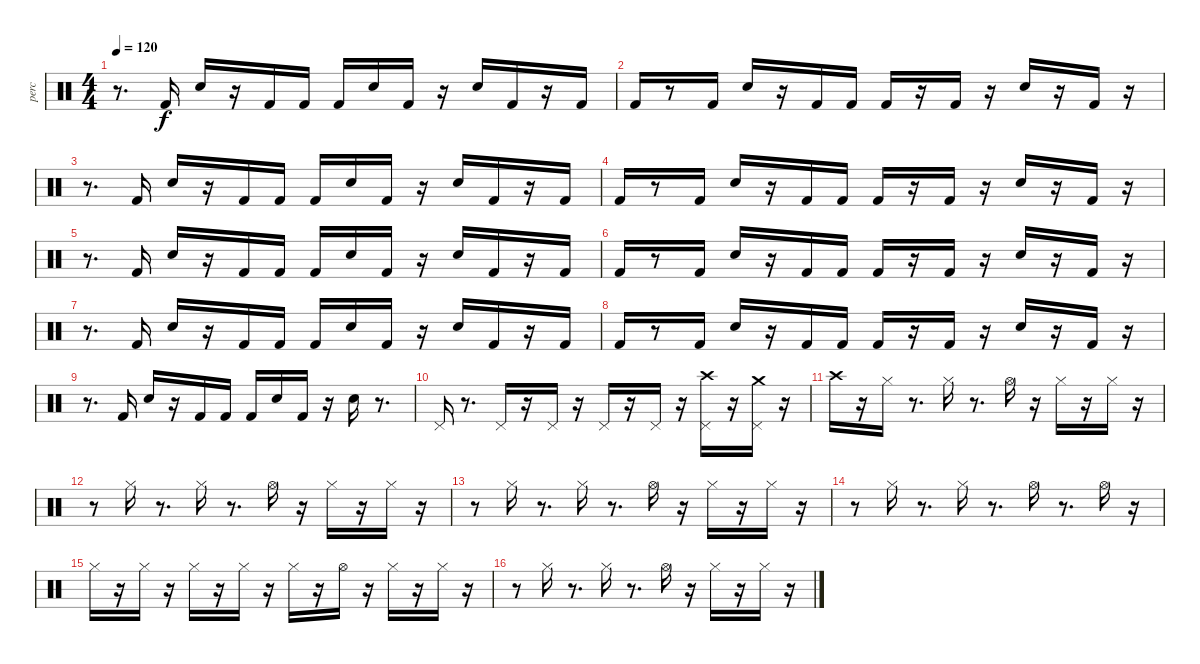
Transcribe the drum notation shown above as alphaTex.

\track ("perc" "perc") {instrument percussion}
\staff {score}
\articulation defaults
\ts (4 4)
\tempo 120
\clef neutral
\ks c
r.8{d dy f} "Kick (hit) 2".16 "Electric Snare (hit)".16 r.16 "Kick (hit) 2".16 "Kick (hit) 2".16 "Kick (hit) 2".16 "Electric Snare (hit)".16 "Kick (hit) 2".16 r.16 "Electric Snare (hit)".16 "Kick (hit) 2".16 r.16 "Kick (hit) 2".16 |
"Kick (hit) 2".16 r.8 "Kick (hit) 2".16 "Electric Snare (hit)".16 r.16 "Kick (hit) 2".16 "Kick (hit) 2".16 "Kick (hit) 2".16 r.16 "Kick (hit) 2".16 r.16 "Electric Snare (hit)".16 r.16 "Kick (hit) 2".16 r.16 |
r.8{d} "Kick (hit) 2".16 "Electric Snare (hit)".16 r.16 "Kick (hit) 2".16 "Kick (hit) 2".16 "Kick (hit) 2".16 "Electric Snare (hit)".16 "Kick (hit) 2".16 r.16 "Electric Snare (hit)".16 "Kick (hit) 2".16 r.16 "Kick (hit) 2".16 |
"Kick (hit) 2".16 r.8 "Kick (hit) 2".16 "Electric Snare (hit)".16 r.16 "Kick (hit) 2".16 "Kick (hit) 2".16 "Kick (hit) 2".16 r.16 "Kick (hit) 2".16 r.16 "Electric Snare (hit)".16 r.16 "Kick (hit) 2".16 r.16 |
r.8{d} "Kick (hit) 2".16 "Electric Snare (hit)".16 r.16 "Kick (hit) 2".16 "Kick (hit) 2".16 "Kick (hit) 2".16 "Electric Snare (hit)".16 "Kick (hit) 2".16 r.16 "Electric Snare (hit)".16 "Kick (hit) 2".16 r.16 "Kick (hit) 2".16 |
"Kick (hit) 2".16 r.8 "Kick (hit) 2".16 "Electric Snare (hit)".16 r.16 "Kick (hit) 2".16 "Kick (hit) 2".16 "Kick (hit) 2".16 r.16 "Kick (hit) 2".16 r.16 "Electric Snare (hit)".16 r.16 "Kick (hit) 2".16 r.16 |
r.8{d} "Kick (hit) 2".16 "Electric Snare (hit)".16 r.16 "Kick (hit) 2".16 "Kick (hit) 2".16 "Kick (hit) 2".16 "Electric Snare (hit)".16 "Kick (hit) 2".16 r.16 "Electric Snare (hit)".16 "Kick (hit) 2".16 r.16 "Kick (hit) 2".16 |
"Kick (hit) 2".16 r.8 "Kick (hit) 2".16 "Electric Snare (hit)".16 r.16 "Kick (hit) 2".16 "Kick (hit) 2".16 "Kick (hit) 2".16 r.16 "Kick (hit) 2".16 r.16 "Electric Snare (hit)".16 r.16 "Kick (hit) 2".16 r.16 |
r.8{d} "Kick (hit) 2".16 "Electric Snare (hit)".16 r.16 "Kick (hit) 2".16 "Kick (hit) 2".16 "Kick (hit) 2".16 "Electric Snare (hit)".16 "Kick (hit) 2".16 r.16 "Electric Snare (hit)".16 r.8{d} |
"Pedal Hi-Hat (hit)".16 r.8{d} "Pedal Hi-Hat (hit)".16 r.16 "Pedal Hi-Hat (hit)".16 r.16 "Pedal Hi-Hat (hit)".16 r.16 "Pedal Hi-Hat (hit)".16 r.16 ("Crash high (hit)" "Pedal Hi-Hat (hit)").16 r.16 ("Crash medium (hit)" "Pedal Hi-Hat (hit)").16 r.16 |
"Crash high (hit)".16 r.16 "Hi-Hat (closed)".16 r.8{d} "Hi-Hat (closed)".16 r.8{d} "Hi-Hat (open)".16 r.16 "Hi-Hat (closed)".16 r.16 "Hi-Hat (closed)".16 r.16 |
r.8 "Hi-Hat (closed)".16 r.8{d} "Hi-Hat (closed)".16 r.8{d} "Hi-Hat (open)".16 r.16 "Hi-Hat (closed)".16 r.16 "Hi-Hat (closed)".16 r.16 |
r.8 "Hi-Hat (closed)".16 r.8{d} "Hi-Hat (closed)".16 r.8{d} "Hi-Hat (open)".16 r.16 "Hi-Hat (closed)".16 r.16 "Hi-Hat (closed)".16 r.16 |
r.8 "Hi-Hat (closed)".16 r.8{d} "Hi-Hat (closed)".16 r.8{d} "Hi-Hat (open)".16 r.8{d} "Hi-Hat (open)".16 r.16 |
"Hi-Hat (closed)".16 r.16 "Hi-Hat (closed)".16 r.16 "Hi-Hat (closed)".16 r.16 "Hi-Hat (closed)".16 r.16 "Hi-Hat (closed)".16 r.16 "Hi-Hat (open)".16 r.16 "Hi-Hat (closed)".16 r.16 "Hi-Hat (closed)".16 r.16 |
r.8 "Hi-Hat (closed)".16 r.8{d} "Hi-Hat (closed)".16 r.8{d} "Hi-Hat (open)".16 r.16 "Hi-Hat (closed)".16 r.16 "Hi-Hat (closed)".16 r.16
